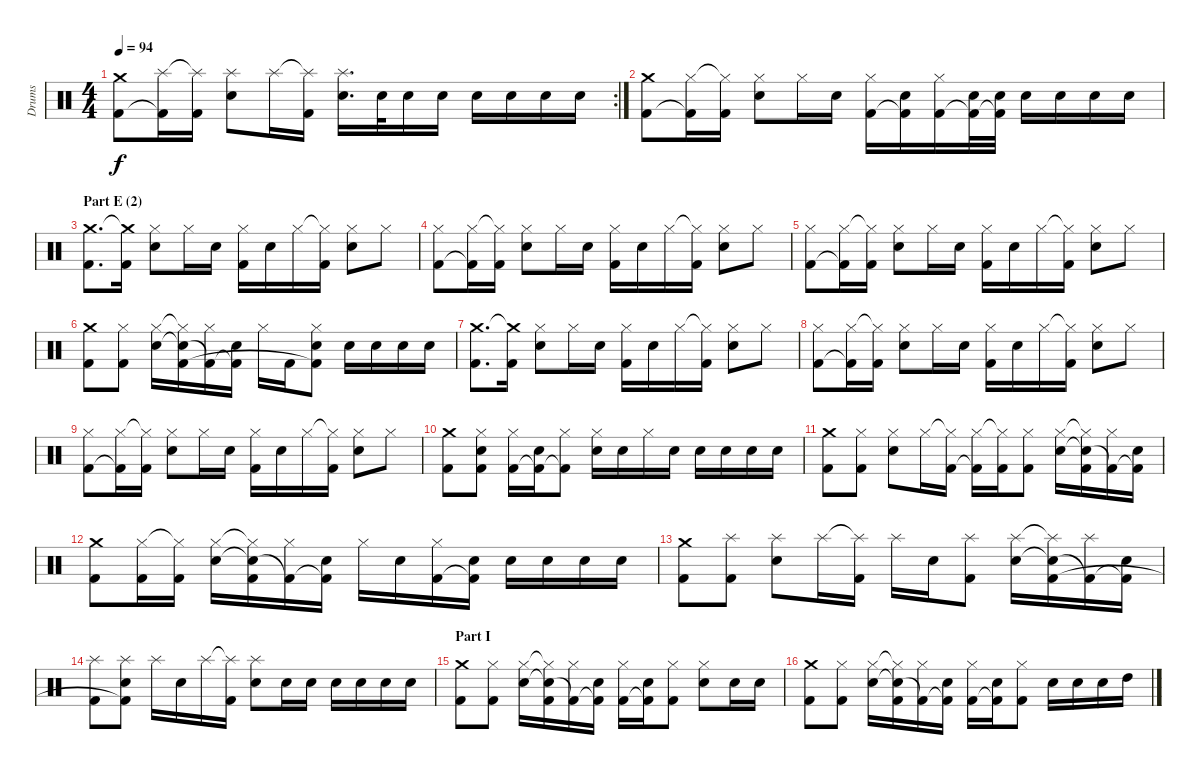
\track ("Drums" "Drums") {instrument percussion}
\staff {score}
\articulation defaults
\rc 2
\ts (4 4)
\tempo 94
\clef neutral
\ks c
("Crash medium (hit)" "Kick (hit) 2").8{dy f} ("Splash (hit)" "Kick (hit) 2"{t}).16 ("Splash (hit)"{t} "Kick (hit) 2").16 ("Splash (hit)" "Electric Snare (hit)").8 "Splash (hit)".16 ("Splash (hit)"{t} "Kick (hit) 2").16 ("Splash (hit)" "Electric Snare (hit)").16{d} "Electric Snare (hit)".32 "Electric Snare (hit)".16 "Electric Snare (hit)".16 "Electric Snare (hit)".16 "Electric Snare (hit)".16 "Electric Snare (hit)".16 "Electric Snare (hit)".16 |
("Crash medium (hit)" "Kick (hit) 2").8 ("Hi-Hat (closed)" "Kick (hit) 2"{t}).16 ("Hi-Hat (closed)"{t} "Kick (hit) 2").16 ("Hi-Hat (closed)" "Electric Snare (hit)").8 "Hi-Hat (closed)".16 "Electric Snare (hit)".16 ("Hi-Hat (closed)" "Kick (hit) 2").16 ("Electric Snare (hit)" "Kick (hit) 2"{t}).16 ("Hi-Hat (closed)" "Kick (hit) 2").16 ("Electric Snare (hit)" "Kick (hit) 2"{t}).32 ("Electric Snare (hit)" "Kick (hit) 2"{t}).32 "Electric Snare (hit)".16 "Electric Snare (hit)".16 "Electric Snare (hit)".16 "Electric Snare (hit)".16 |
\section ("" "Part E (2)")
("Crash medium (hit)" "Kick (hit) 2").8{d} ("Crash medium (hit)"{t} "Kick (hit) 2").16 ("Hi-Hat (closed)" "Electric Snare (hit)").8 "Hi-Hat (closed)".16 "Electric Snare (hit)".16 ("Hi-Hat (closed)" "Kick (hit) 2").16 "Electric Snare (hit)".16 "Hi-Hat (closed)".16 ("Hi-Hat (closed)"{t} "Kick (hit) 2").16 ("Hi-Hat (closed)" "Electric Snare (hit)").8 "Hi-Hat (closed)".8 |
("Hi-Hat (closed)" "Kick (hit) 2").8 ("Hi-Hat (closed)" "Kick (hit) 2"{t}).16 ("Hi-Hat (closed)"{t} "Kick (hit) 2").16 ("Hi-Hat (closed)" "Electric Snare (hit)").8 "Hi-Hat (closed)".16 "Electric Snare (hit)".16 ("Hi-Hat (closed)" "Kick (hit) 2").16 "Electric Snare (hit)".16 "Hi-Hat (closed)".16 ("Hi-Hat (closed)"{t} "Kick (hit) 2").16 ("Hi-Hat (closed)" "Electric Snare (hit)").8 "Hi-Hat (closed)".8 |
("Hi-Hat (closed)" "Kick (hit) 2").8 ("Hi-Hat (closed)" "Kick (hit) 2"{t}).16 ("Hi-Hat (closed)"{t} "Kick (hit) 2").16 ("Hi-Hat (closed)" "Electric Snare (hit)").8 "Hi-Hat (closed)".16 "Electric Snare (hit)".16 ("Hi-Hat (closed)" "Kick (hit) 2").16 "Electric Snare (hit)".16 "Hi-Hat (closed)".16 ("Hi-Hat (closed)"{t} "Kick (hit) 2").16 ("Hi-Hat (closed)" "Electric Snare (hit)").8 "Hi-Hat (closed)".8 |
("Crash medium (hit)" "Kick (hit) 2").8 ("Hi-Hat (closed)" "Kick (hit) 2").8 ("Hi-Hat (closed)" "Electric Snare (hit)").16 ("Hi-Hat (closed)"{t} "Electric Snare (hit)"{t} "Kick (hit) 2").16 ("Hi-Hat (closed)" "Kick (hit) 2"{t}).16 ("Electric Snare (hit)" "Kick (hit) 2"{t}).16 "Hi-Hat (closed)".16 "Kick (hit) 2".16 ("Hi-Hat (closed)" "Electric Snare (hit)" "Kick (hit) 2"{t}).8 "Electric Snare (hit)".16 "Electric Snare (hit)".16 "Electric Snare (hit)".16 "Electric Snare (hit)".16 |
("Crash medium (hit)" "Kick (hit) 2").8{d} ("Crash medium (hit)"{t} "Kick (hit) 2").16 ("Hi-Hat (closed)" "Electric Snare (hit)").8 "Hi-Hat (closed)".16 "Electric Snare (hit)".16 ("Hi-Hat (closed)" "Kick (hit) 2").16 "Electric Snare (hit)".16 "Hi-Hat (closed)".16 ("Hi-Hat (closed)"{t} "Kick (hit) 2").16 ("Hi-Hat (closed)" "Electric Snare (hit)").8 "Hi-Hat (closed)".8 |
("Hi-Hat (closed)" "Kick (hit) 2").8 ("Hi-Hat (closed)" "Kick (hit) 2"{t}).16 ("Hi-Hat (closed)"{t} "Kick (hit) 2").16 ("Hi-Hat (closed)" "Electric Snare (hit)").8 "Hi-Hat (closed)".16 "Electric Snare (hit)".16 ("Hi-Hat (closed)" "Kick (hit) 2").16 "Electric Snare (hit)".16 "Hi-Hat (closed)".16 ("Hi-Hat (closed)"{t} "Kick (hit) 2").16 ("Hi-Hat (closed)" "Electric Snare (hit)").8 "Hi-Hat (closed)".8 |
("Hi-Hat (closed)" "Kick (hit) 2").8 ("Hi-Hat (closed)" "Kick (hit) 2"{t}).16 ("Hi-Hat (closed)"{t} "Kick (hit) 2").16 ("Hi-Hat (closed)" "Electric Snare (hit)").8 "Hi-Hat (closed)".16 "Electric Snare (hit)".16 ("Hi-Hat (closed)" "Kick (hit) 2").16 "Electric Snare (hit)".16 "Hi-Hat (closed)".16 ("Hi-Hat (closed)"{t} "Kick (hit) 2").16 ("Hi-Hat (closed)" "Electric Snare (hit)").8 "Hi-Hat (closed)".8 |
("Crash medium (hit)" "Kick (hit) 2").8 ("Hi-Hat (closed)" "Electric Snare (hit)" "Kick (hit) 2").8 ("Hi-Hat (closed)" "Kick (hit) 2").16 ("Electric Snare (hit)" "Kick (hit) 2"{t}).16 ("Hi-Hat (closed)" "Kick (hit) 2"{t}).8 ("Hi-Hat (closed)" "Electric Snare (hit)").16 "Electric Snare (hit)".16 "Hi-Hat (closed)".16 "Electric Snare (hit)".16 "Electric Snare (hit)".16 "Electric Snare (hit)".16 "Electric Snare (hit)".16 "Electric Snare (hit)".16 |
("Crash medium (hit)" "Kick (hit) 2").8 ("Hi-Hat (closed)" "Kick (hit) 2").8 ("Hi-Hat (closed)" "Electric Snare (hit)").8 "Hi-Hat (closed)".16 ("Hi-Hat (closed)"{t} "Kick (hit) 2").16 ("Hi-Hat (closed)" "Kick (hit) 2"{t}).16 ("Hi-Hat (closed)"{t} "Kick (hit) 2").16 ("Hi-Hat (closed)" "Kick (hit) 2").8 ("Hi-Hat (closed)" "Electric Snare (hit)").16 ("Hi-Hat (closed)"{t} "Electric Snare (hit)"{t} "Kick (hit) 2").16 ("Hi-Hat (closed)" "Kick (hit) 2"{t}).16 ("Electric Snare (hit)" "Kick (hit) 2"{t}).16 |
("Crash medium (hit)" "Kick (hit) 2").8 ("Hi-Hat (closed)" "Kick (hit) 2").16 ("Hi-Hat (closed)"{t} "Kick (hit) 2").16 ("Hi-Hat (closed)" "Electric Snare (hit)").16 ("Hi-Hat (closed)"{t} "Electric Snare (hit)"{t} "Kick (hit) 2").16 ("Hi-Hat (closed)" "Kick (hit) 2"{t}).16 ("Electric Snare (hit)" "Kick (hit) 2"{t}).16 "Hi-Hat (closed)".16 "Electric Snare (hit)".16 ("Hi-Hat (closed)" "Kick (hit) 2").16 ("Electric Snare (hit)" "Kick (hit) 2"{t}).16 "Electric Snare (hit)".16 "Electric Snare (hit)".16 "Electric Snare (hit)".16 "Electric Snare (hit)".16 |
("Crash medium (hit)" "Kick (hit) 2").8 ("Splash (hit)" "Kick (hit) 2").8 ("Splash (hit)" "Electric Snare (hit)").8 "Splash (hit)".16 ("Splash (hit)"{t} "Kick (hit) 2").16 "Splash (hit)".16 "Electric Snare (hit)".16 ("Splash (hit)" "Kick (hit) 2").8 ("Splash (hit)" "Electric Snare (hit)").16 ("Splash (hit)"{t} "Electric Snare (hit)"{t} "Kick (hit) 2").16 ("Splash (hit)" "Kick (hit) 2"{t}).16 ("Electric Snare (hit)" "Kick (hit) 2"{t}).16 |
("Splash (hit)" "Kick (hit) 2").8 ("Splash (hit)" "Electric Snare (hit)" "Kick (hit) 2"{t}).8 "Splash (hit)".16 "Electric Snare (hit)".16 "Splash (hit)".16 ("Splash (hit)"{t} "Kick (hit) 2").16 ("Splash (hit)" "Electric Snare (hit)").8 "Electric Snare (hit)".16 "Electric Snare (hit)".16 "Electric Snare (hit)".16 "Electric Snare (hit)".16 "Electric Snare (hit)".16 "Electric Snare (hit)".16 |
\section ("" "Part I")
("Crash medium (hit)" "Kick (hit) 2").8 ("Hi-Hat (closed)" "Kick (hit) 2").8 ("Hi-Hat (closed)" "Electric Snare (hit)").16 ("Hi-Hat (closed)"{t} "Electric Snare (hit)"{t} "Kick (hit) 2").16 ("Hi-Hat (closed)" "Kick (hit) 2"{t}).16 ("Electric Snare (hit)" "Kick (hit) 2"{t}).16 ("Hi-Hat (closed)" "Kick (hit) 2").16 ("Electric Snare (hit)" "Kick (hit) 2"{t}).16 ("Hi-Hat (closed)" "Kick (hit) 2").8 ("Hi-Hat (closed)" "Electric Snare (hit)").8 "Electric Snare (hit)".16 "Electric Snare (hit)".16 |
("Crash medium (hit)" "Kick (hit) 2").8 ("Hi-Hat (closed)" "Kick (hit) 2").8 ("Hi-Hat (closed)" "Electric Snare (hit)").16 ("Hi-Hat (closed)"{t} "Electric Snare (hit)"{t} "Kick (hit) 2").16 ("Hi-Hat (closed)" "Kick (hit) 2"{t}).16 ("Electric Snare (hit)" "Kick (hit) 2"{t}).16 ("Hi-Hat (closed)" "Kick (hit) 2").16 ("Electric Snare (hit)" "Kick (hit) 2"{t}).16 ("Hi-Hat (closed)" "Kick (hit) 2").8 "Electric Snare (hit)".16 "Electric Snare (hit)".16 "Electric Snare (hit)".16 "High Tom (hit)".16
